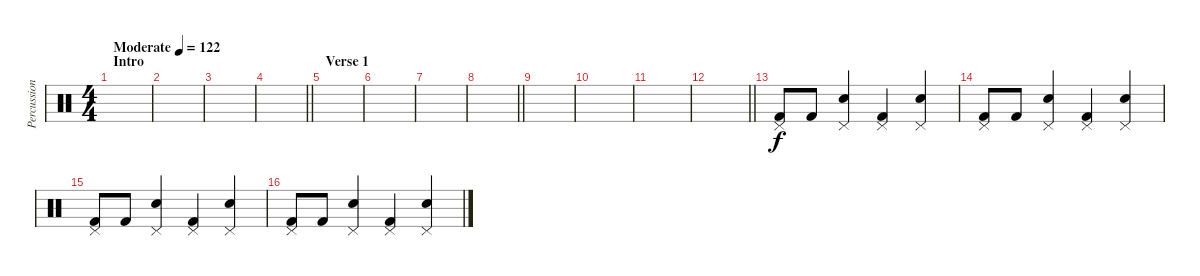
\track ("Percussion" "Percussion") {instrument percussion}
\staff {score}
\articulation defaults
\ts (4 4)
\section ("" "Intro")
\tempo (122 "Moderate")
\clef neutral
\ks c
|
|
|
\barLineRight lightlight
|
\section ("" "Verse 1")
|
|
|
\barLineRight lightlight
|
|
|
|
\barLineRight lightlight
|
("Pedal Hi-Hat (hit)" "Kick (hit) 2").8 "Kick (hit) 2".8 ("Pedal Hi-Hat (hit)" "Electric Snare (hit)").4 ("Pedal Hi-Hat (hit)" "Kick (hit) 2").4 ("Pedal Hi-Hat (hit)" "Electric Snare (hit)").4 |
("Pedal Hi-Hat (hit)" "Kick (hit) 2").8 "Kick (hit) 2".8 ("Pedal Hi-Hat (hit)" "Electric Snare (hit)").4 ("Pedal Hi-Hat (hit)" "Kick (hit) 2").4 ("Pedal Hi-Hat (hit)" "Electric Snare (hit)").4 |
("Pedal Hi-Hat (hit)" "Kick (hit) 2").8 "Kick (hit) 2".8 ("Pedal Hi-Hat (hit)" "Electric Snare (hit)").4 ("Pedal Hi-Hat (hit)" "Kick (hit) 2").4 ("Pedal Hi-Hat (hit)" "Electric Snare (hit)").4 |
("Pedal Hi-Hat (hit)" "Kick (hit) 2").8 "Kick (hit) 2".8 ("Pedal Hi-Hat (hit)" "Electric Snare (hit)").4 ("Pedal Hi-Hat (hit)" "Kick (hit) 2").4 ("Pedal Hi-Hat (hit)" "Electric Snare (hit)").4
